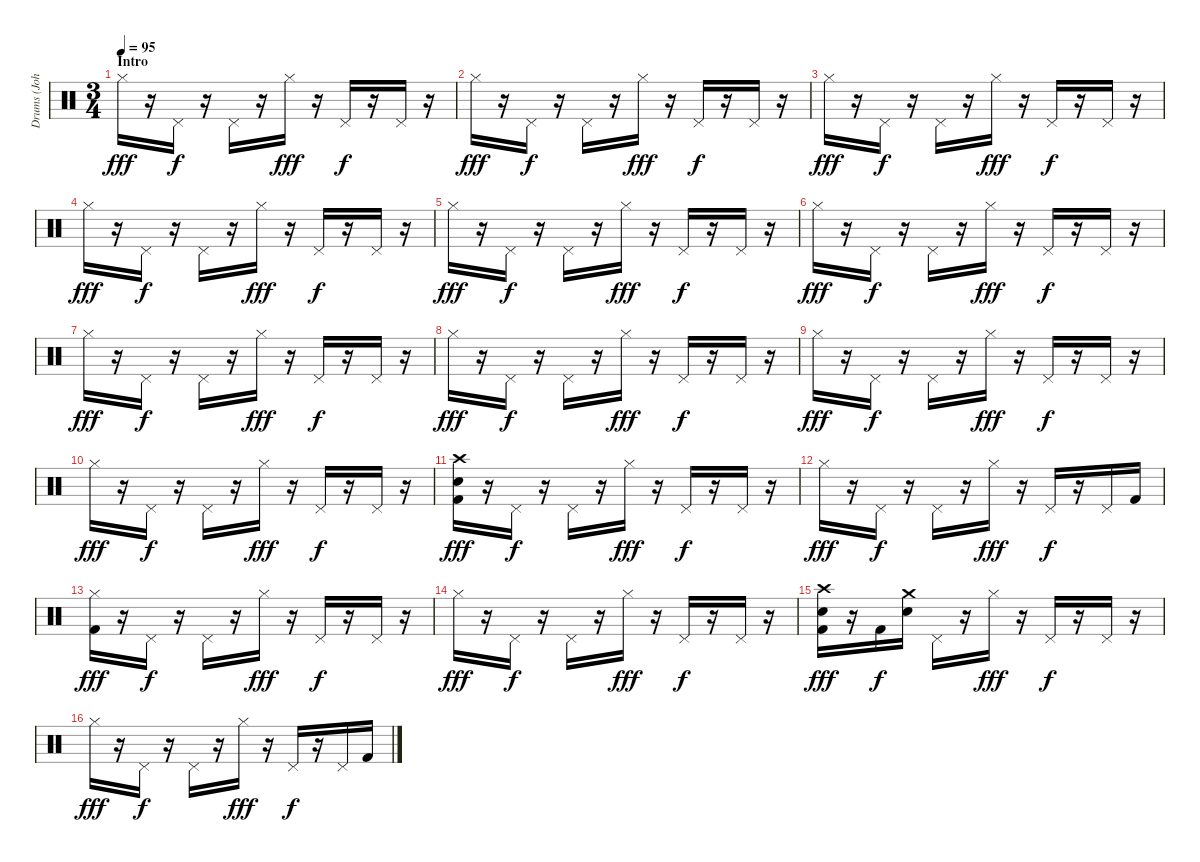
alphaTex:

\track ("Drums (John Otto)" "Drums (Joh") {instrument percussion}
\staff {score}
\articulation defaults
\ts (3 4)
\section ("" "Intro")
\tempo 95
\clef neutral
\ks c "Hi-Hat (closed)".16{dy fff}
r.16 "Pedal Hi-Hat (hit)".16{dy f} r.16 "Pedal Hi-Hat (hit)".16 r.16 "Hi-Hat (closed)".16{dy fff} r.16 "Pedal Hi-Hat (hit)".16{dy f} r.16 "Pedal Hi-Hat (hit)".16 r.16 |
"Hi-Hat (closed)".16{dy fff} r.16 "Pedal Hi-Hat (hit)".16{dy f} r.16 "Pedal Hi-Hat (hit)".16 r.16 "Hi-Hat (closed)".16{dy fff} r.16 "Pedal Hi-Hat (hit)".16{dy f} r.16 "Pedal Hi-Hat (hit)".16 r.16 |
"Hi-Hat (closed)".16{dy fff} r.16 "Pedal Hi-Hat (hit)".16{dy f} r.16 "Pedal Hi-Hat (hit)".16 r.16 "Hi-Hat (closed)".16{dy fff} r.16 "Pedal Hi-Hat (hit)".16{dy f} r.16 "Pedal Hi-Hat (hit)".16 r.16 |
"Hi-Hat (closed)".16{dy fff} r.16 "Pedal Hi-Hat (hit)".16{dy f} r.16 "Pedal Hi-Hat (hit)".16 r.16 "Hi-Hat (closed)".16{dy fff} r.16 "Pedal Hi-Hat (hit)".16{dy f} r.16 "Pedal Hi-Hat (hit)".16 r.16 |
"Hi-Hat (closed)".16{dy fff} r.16 "Pedal Hi-Hat (hit)".16{dy f} r.16 "Pedal Hi-Hat (hit)".16 r.16 "Hi-Hat (closed)".16{dy fff} r.16 "Pedal Hi-Hat (hit)".16{dy f} r.16 "Pedal Hi-Hat (hit)".16 r.16 |
"Hi-Hat (closed)".16{dy fff} r.16 "Pedal Hi-Hat (hit)".16{dy f} r.16 "Pedal Hi-Hat (hit)".16 r.16 "Hi-Hat (closed)".16{dy fff} r.16 "Pedal Hi-Hat (hit)".16{dy f} r.16 "Pedal Hi-Hat (hit)".16 r.16 |
"Hi-Hat (closed)".16{dy fff} r.16 "Pedal Hi-Hat (hit)".16{dy f} r.16 "Pedal Hi-Hat (hit)".16 r.16 "Hi-Hat (closed)".16{dy fff} r.16 "Pedal Hi-Hat (hit)".16{dy f} r.16 "Pedal Hi-Hat (hit)".16 r.16 |
"Hi-Hat (closed)".16{dy fff} r.16 "Pedal Hi-Hat (hit)".16{dy f} r.16 "Pedal Hi-Hat (hit)".16 r.16 "Hi-Hat (closed)".16{dy fff} r.16 "Pedal Hi-Hat (hit)".16{dy f} r.16 "Pedal Hi-Hat (hit)".16 r.16 |
"Hi-Hat (closed)".16{dy fff} r.16 "Pedal Hi-Hat (hit)".16{dy f} r.16 "Pedal Hi-Hat (hit)".16 r.16 "Hi-Hat (closed)".16{dy fff} r.16 "Pedal Hi-Hat (hit)".16{dy f} r.16 "Pedal Hi-Hat (hit)".16 r.16 |
"Hi-Hat (closed)".16{dy fff} r.16 "Pedal Hi-Hat (hit)".16{dy f} r.16 "Pedal Hi-Hat (hit)".16 r.16 "Hi-Hat (closed)".16{dy fff} r.16 "Pedal Hi-Hat (hit)".16{dy f} r.16 "Pedal Hi-Hat (hit)".16 r.16 |
("Crash high (hit)" "Electric Snare (hit)" "Kick (hit) 2").16{dy fff} r.16 "Pedal Hi-Hat (hit)".16{dy f} r.16 "Pedal Hi-Hat (hit)".16 r.16 "Hi-Hat (closed)".16{dy fff} r.16 "Pedal Hi-Hat (hit)".16{dy f} r.16 "Pedal Hi-Hat (hit)".16 r.16 |
"Hi-Hat (closed)".16{dy fff} r.16 "Pedal Hi-Hat (hit)".16{dy f} r.16 "Pedal Hi-Hat (hit)".16 r.16 "Hi-Hat (closed)".16{dy fff} r.16 "Pedal Hi-Hat (hit)".16{dy f} r.16 "Pedal Hi-Hat (hit)".16 "Kick (hit) 2".16 |
("Hi-Hat (closed)" "Kick (hit) 2").16{dy fff} r.16 "Pedal Hi-Hat (hit)".16{dy f} r.16 "Pedal Hi-Hat (hit)".16 r.16 "Hi-Hat (closed)".16{dy fff} r.16 "Pedal Hi-Hat (hit)".16{dy f} r.16 "Pedal Hi-Hat (hit)".16 r.16 |
"Hi-Hat (closed)".16{dy fff} r.16 "Pedal Hi-Hat (hit)".16{dy f} r.16 "Pedal Hi-Hat (hit)".16 r.16 "Hi-Hat (closed)".16{dy fff} r.16 "Pedal Hi-Hat (hit)".16{dy f} r.16 "Pedal Hi-Hat (hit)".16 r.16 |
("Crash high (hit)" "Electric Snare (hit)" "Kick (hit) 2").16{dy fff} r.16 "Kick (hit) 2".16{dy f} ("Crash medium (hit)" "Electric Snare (hit)").16 "Pedal Hi-Hat (hit)".16 r.16 "Hi-Hat (closed)".16{dy fff} r.16 "Pedal Hi-Hat (hit)".16{dy f} r.16 "Pedal Hi-Hat (hit)".16 r.16 |
"Hi-Hat (closed)".16{dy fff} r.16 "Pedal Hi-Hat (hit)".16{dy f} r.16 "Pedal Hi-Hat (hit)".16 r.16 "Hi-Hat (closed)".16{dy fff} r.16 "Pedal Hi-Hat (hit)".16{dy f} r.16 "Pedal Hi-Hat (hit)".16 "Kick (hit) 2".16
